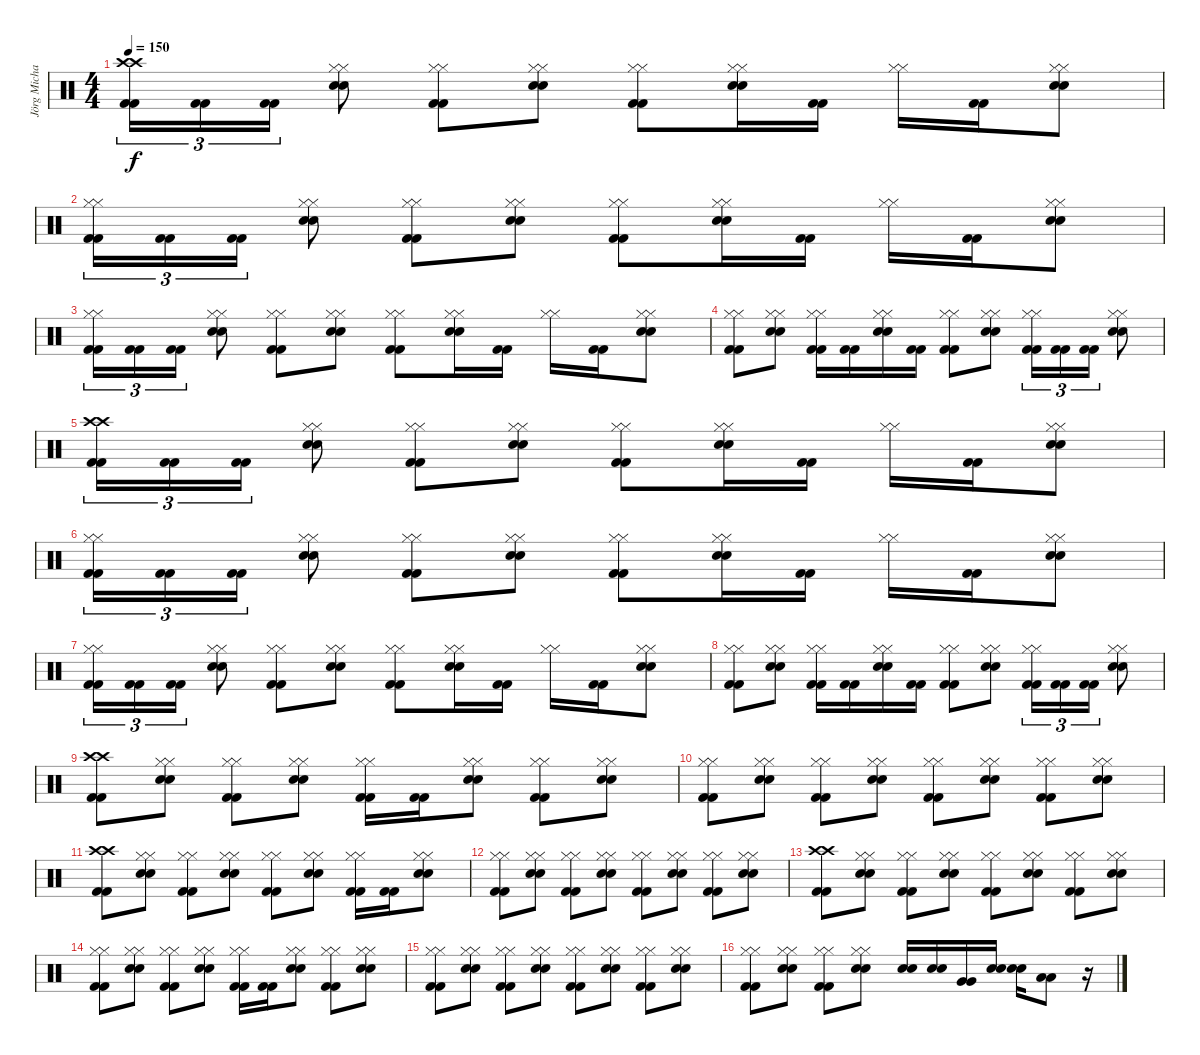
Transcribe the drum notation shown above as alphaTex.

\track ("Jörg Michael" "Jörg Micha") {instrument percussion}
\staff {score}
\articulation defaults
\ts (4 4)
\tempo 150
\clef neutral
\ks c
("Crash high (hit)" "Kick (hit) 2" "Crash high (hit)" "Kick (hit) 2").16{tu (3 2) dy f} ("Kick (hit) 2" "Kick (hit) 2").16{tu (3 2)} ("Kick (hit) 2" "Kick (hit) 2").16{tu (3 2)} ("Hi-Hat (closed)" "Snare (hit) 2" "Hi-Hat (closed)" "Snare (hit) 2").8 ("Hi-Hat (closed)" "Kick (hit) 2" "Hi-Hat (closed)" "Kick (hit) 2").8 ("Hi-Hat (closed)" "Snare (hit) 2" "Hi-Hat (closed)" "Snare (hit) 2").8 ("Hi-Hat (closed)" "Kick (hit) 2" "Hi-Hat (closed)" "Kick (hit) 2").8 ("Hi-Hat (closed)" "Snare (hit) 2" "Hi-Hat (closed)" "Snare (hit) 2").16 ("Kick (hit) 2" "Kick (hit) 2").16 ("Hi-Hat (closed)" "Hi-Hat (closed)").16 ("Kick (hit) 2" "Kick (hit) 2").16 ("Hi-Hat (closed)" "Snare (hit) 2" "Hi-Hat (closed)" "Snare (hit) 2").8 |
("Hi-Hat (closed)" "Kick (hit) 2" "Hi-Hat (closed)" "Kick (hit) 2").16{tu (3 2)} ("Kick (hit) 2" "Kick (hit) 2").16{tu (3 2)} ("Kick (hit) 2" "Kick (hit) 2").16{tu (3 2)} ("Hi-Hat (closed)" "Snare (hit) 2" "Hi-Hat (closed)" "Snare (hit) 2").8 ("Hi-Hat (closed)" "Kick (hit) 2" "Hi-Hat (closed)" "Kick (hit) 2").8 ("Hi-Hat (closed)" "Snare (hit) 2" "Hi-Hat (closed)" "Snare (hit) 2").8 ("Hi-Hat (closed)" "Kick (hit) 2" "Hi-Hat (closed)" "Kick (hit) 2").8 ("Hi-Hat (closed)" "Snare (hit) 2" "Hi-Hat (closed)" "Snare (hit) 2").16 ("Kick (hit) 2" "Kick (hit) 2").16 ("Hi-Hat (closed)" "Hi-Hat (closed)").16 ("Kick (hit) 2" "Kick (hit) 2").16 ("Hi-Hat (closed)" "Snare (hit) 2" "Hi-Hat (closed)" "Snare (hit) 2").8 |
("Hi-Hat (closed)" "Kick (hit) 2" "Hi-Hat (closed)" "Kick (hit) 2").16{tu (3 2)} ("Kick (hit) 2" "Kick (hit) 2").16{tu (3 2)} ("Kick (hit) 2" "Kick (hit) 2").16{tu (3 2)} ("Hi-Hat (closed)" "Snare (hit) 2" "Hi-Hat (closed)" "Snare (hit) 2").8 ("Hi-Hat (closed)" "Kick (hit) 2" "Hi-Hat (closed)" "Kick (hit) 2").8 ("Hi-Hat (closed)" "Snare (hit) 2" "Hi-Hat (closed)" "Snare (hit) 2").8 ("Hi-Hat (closed)" "Kick (hit) 2" "Hi-Hat (closed)" "Kick (hit) 2").8 ("Hi-Hat (closed)" "Snare (hit) 2" "Hi-Hat (closed)" "Snare (hit) 2").16 ("Kick (hit) 2" "Kick (hit) 2").16 ("Hi-Hat (closed)" "Hi-Hat (closed)").16 ("Kick (hit) 2" "Kick (hit) 2").16 ("Hi-Hat (closed)" "Snare (hit) 2" "Hi-Hat (closed)" "Snare (hit) 2").8 |
("Hi-Hat (closed)" "Kick (hit) 2" "Hi-Hat (closed)" "Kick (hit) 2").8 ("Hi-Hat (closed)" "Snare (hit) 2" "Hi-Hat (closed)" "Snare (hit) 2").8 ("Hi-Hat (closed)" "Kick (hit) 2" "Hi-Hat (closed)" "Kick (hit) 2").16 ("Kick (hit) 2" "Kick (hit) 2").16 ("Hi-Hat (closed)" "Snare (hit) 2" "Hi-Hat (closed)" "Snare (hit) 2").16 ("Kick (hit) 2" "Kick (hit) 2").16 ("Hi-Hat (closed)" "Kick (hit) 2" "Hi-Hat (closed)" "Kick (hit) 2").8 ("Hi-Hat (closed)" "Snare (hit) 2" "Hi-Hat (closed)" "Snare (hit) 2").8 ("Hi-Hat (closed)" "Kick (hit) 2" "Hi-Hat (closed)" "Kick (hit) 2").16{tu (3 2)} ("Kick (hit) 2" "Kick (hit) 2").16{tu (3 2)} ("Kick (hit) 2" "Kick (hit) 2").16{tu (3 2)} ("Hi-Hat (closed)" "Snare (hit) 2" "Hi-Hat (closed)" "Snare (hit) 2").8 |
("Crash high (hit)" "Kick (hit) 2" "Crash high (hit)" "Kick (hit) 2").16{tu (3 2)} ("Kick (hit) 2" "Kick (hit) 2").16{tu (3 2)} ("Kick (hit) 2" "Kick (hit) 2").16{tu (3 2)} ("Hi-Hat (closed)" "Snare (hit) 2" "Hi-Hat (closed)" "Snare (hit) 2").8 ("Hi-Hat (closed)" "Kick (hit) 2" "Hi-Hat (closed)" "Kick (hit) 2").8 ("Hi-Hat (closed)" "Snare (hit) 2" "Hi-Hat (closed)" "Snare (hit) 2").8 ("Hi-Hat (closed)" "Kick (hit) 2" "Hi-Hat (closed)" "Kick (hit) 2").8 ("Hi-Hat (closed)" "Snare (hit) 2" "Hi-Hat (closed)" "Snare (hit) 2").16 ("Kick (hit) 2" "Kick (hit) 2").16 ("Hi-Hat (closed)" "Hi-Hat (closed)").16 ("Kick (hit) 2" "Kick (hit) 2").16 ("Hi-Hat (closed)" "Snare (hit) 2" "Hi-Hat (closed)" "Snare (hit) 2").8 |
("Hi-Hat (closed)" "Kick (hit) 2" "Hi-Hat (closed)" "Kick (hit) 2").16{tu (3 2)} ("Kick (hit) 2" "Kick (hit) 2").16{tu (3 2)} ("Kick (hit) 2" "Kick (hit) 2").16{tu (3 2)} ("Hi-Hat (closed)" "Snare (hit) 2" "Hi-Hat (closed)" "Snare (hit) 2").8 ("Hi-Hat (closed)" "Kick (hit) 2" "Hi-Hat (closed)" "Kick (hit) 2").8 ("Hi-Hat (closed)" "Snare (hit) 2" "Hi-Hat (closed)" "Snare (hit) 2").8 ("Hi-Hat (closed)" "Kick (hit) 2" "Hi-Hat (closed)" "Kick (hit) 2").8 ("Hi-Hat (closed)" "Snare (hit) 2" "Hi-Hat (closed)" "Snare (hit) 2").16 ("Kick (hit) 2" "Kick (hit) 2").16 ("Hi-Hat (closed)" "Hi-Hat (closed)").16 ("Kick (hit) 2" "Kick (hit) 2").16 ("Hi-Hat (closed)" "Snare (hit) 2" "Hi-Hat (closed)" "Snare (hit) 2").8 |
("Hi-Hat (closed)" "Kick (hit) 2" "Hi-Hat (closed)" "Kick (hit) 2").16{tu (3 2)} ("Kick (hit) 2" "Kick (hit) 2").16{tu (3 2)} ("Kick (hit) 2" "Kick (hit) 2").16{tu (3 2)} ("Hi-Hat (closed)" "Snare (hit) 2" "Hi-Hat (closed)" "Snare (hit) 2").8 ("Hi-Hat (closed)" "Kick (hit) 2" "Hi-Hat (closed)" "Kick (hit) 2").8 ("Hi-Hat (closed)" "Snare (hit) 2" "Hi-Hat (closed)" "Snare (hit) 2").8 ("Hi-Hat (closed)" "Kick (hit) 2" "Hi-Hat (closed)" "Kick (hit) 2").8 ("Hi-Hat (closed)" "Snare (hit) 2" "Hi-Hat (closed)" "Snare (hit) 2").16 ("Kick (hit) 2" "Kick (hit) 2").16 ("Hi-Hat (closed)" "Hi-Hat (closed)").16 ("Kick (hit) 2" "Kick (hit) 2").16 ("Hi-Hat (closed)" "Snare (hit) 2" "Hi-Hat (closed)" "Snare (hit) 2").8 |
("Hi-Hat (closed)" "Kick (hit) 2" "Hi-Hat (closed)" "Kick (hit) 2").8 ("Hi-Hat (closed)" "Snare (hit) 2" "Hi-Hat (closed)" "Snare (hit) 2").8 ("Hi-Hat (closed)" "Kick (hit) 2" "Hi-Hat (closed)" "Kick (hit) 2").16 ("Kick (hit) 2" "Kick (hit) 2").16 ("Hi-Hat (closed)" "Snare (hit) 2" "Hi-Hat (closed)" "Snare (hit) 2").16 ("Kick (hit) 2" "Kick (hit) 2").16 ("Hi-Hat (closed)" "Kick (hit) 2" "Hi-Hat (closed)" "Kick (hit) 2").8 ("Hi-Hat (closed)" "Snare (hit) 2" "Hi-Hat (closed)" "Snare (hit) 2").8 ("Hi-Hat (closed)" "Kick (hit) 2" "Hi-Hat (closed)" "Kick (hit) 2").16{tu (3 2)} ("Kick (hit) 2" "Kick (hit) 2").16{tu (3 2)} ("Kick (hit) 2" "Kick (hit) 2").16{tu (3 2)} ("Hi-Hat (closed)" "Snare (hit) 2" "Hi-Hat (closed)" "Snare (hit) 2").8 |
("Kick (hit) 2" "Crash high (hit)" "Kick (hit) 2" "Crash high (hit)").8 ("Snare (hit) 2" "Hi-Hat (closed)" "Snare (hit) 2" "Hi-Hat (closed)").8 ("Hi-Hat (closed)" "Kick (hit) 2" "Hi-Hat (closed)" "Kick (hit) 2").8 ("Snare (hit) 2" "Hi-Hat (closed)" "Snare (hit) 2" "Hi-Hat (closed)").8 ("Kick (hit) 2" "Hi-Hat (closed)" "Kick (hit) 2" "Hi-Hat (closed)").16 ("Kick (hit) 2" "Kick (hit) 2").16 ("Snare (hit) 2" "Hi-Hat (closed)" "Snare (hit) 2" "Hi-Hat (closed)").8 ("Hi-Hat (closed)" "Kick (hit) 2" "Hi-Hat (closed)" "Kick (hit) 2").8 ("Hi-Hat (closed)" "Snare (hit) 2" "Hi-Hat (closed)" "Snare (hit) 2").8 |
("Kick (hit) 2" "Hi-Hat (closed)" "Kick (hit) 2" "Hi-Hat (closed)").8 ("Snare (hit) 2" "Hi-Hat (closed)" "Snare (hit) 2" "Hi-Hat (closed)").8 ("Hi-Hat (closed)" "Kick (hit) 2" "Hi-Hat (closed)" "Kick (hit) 2").8 ("Hi-Hat (closed)" "Snare (hit) 2" "Hi-Hat (closed)" "Snare (hit) 2").8 ("Kick (hit) 2" "Hi-Hat (closed)" "Kick (hit) 2" "Hi-Hat (closed)").8 ("Hi-Hat (closed)" "Snare (hit) 2" "Hi-Hat (closed)" "Snare (hit) 2").8 ("Kick (hit) 2" "Hi-Hat (closed)" "Kick (hit) 2" "Hi-Hat (closed)").8 ("Snare (hit) 2" "Hi-Hat (closed)" "Snare (hit) 2" "Hi-Hat (closed)").8 |
("Kick (hit) 2" "Crash high (hit)" "Kick (hit) 2" "Crash high (hit)").8 ("Snare (hit) 2" "Hi-Hat (closed)" "Snare (hit) 2" "Hi-Hat (closed)").8 ("Kick (hit) 2" "Hi-Hat (closed)" "Kick (hit) 2" "Hi-Hat (closed)").8 ("Hi-Hat (closed)" "Snare (hit) 2" "Hi-Hat (closed)" "Snare (hit) 2").8 ("Hi-Hat (closed)" "Kick (hit) 2" "Hi-Hat (closed)" "Kick (hit) 2").8 ("Hi-Hat (closed)" "Snare (hit) 2" "Hi-Hat (closed)" "Snare (hit) 2").8 ("Kick (hit) 2" "Hi-Hat (closed)" "Kick (hit) 2" "Hi-Hat (closed)").16 ("Kick (hit) 2" "Kick (hit) 2").16 ("Hi-Hat (closed)" "Snare (hit) 2" "Hi-Hat (closed)" "Snare (hit) 2").8 |
("Kick (hit) 2" "Hi-Hat (closed)" "Kick (hit) 2" "Hi-Hat (closed)").8 ("Hi-Hat (closed)" "Snare (hit) 2" "Hi-Hat (closed)" "Snare (hit) 2").8 ("Hi-Hat (closed)" "Kick (hit) 2" "Hi-Hat (closed)" "Kick (hit) 2").8 ("Hi-Hat (closed)" "Snare (hit) 2" "Hi-Hat (closed)" "Snare (hit) 2").8 ("Hi-Hat (closed)" "Kick (hit) 2" "Hi-Hat (closed)" "Kick (hit) 2").8 ("Hi-Hat (closed)" "Snare (hit) 2" "Hi-Hat (closed)" "Snare (hit) 2").8 ("Kick (hit) 2" "Hi-Hat (closed)" "Kick (hit) 2" "Hi-Hat (closed)").8 ("Snare (hit) 2" "Hi-Hat (closed)" "Snare (hit) 2" "Hi-Hat (closed)").8 |
("Crash high (hit)" "Kick (hit) 2" "Crash high (hit)" "Kick (hit) 2").8 ("Hi-Hat (closed)" "Snare (hit) 2" "Hi-Hat (closed)" "Snare (hit) 2").8 ("Hi-Hat (closed)" "Kick (hit) 2" "Hi-Hat (closed)" "Kick (hit) 2").8 ("Hi-Hat (closed)" "Snare (hit) 2" "Hi-Hat (closed)" "Snare (hit) 2").8 ("Hi-Hat (closed)" "Kick (hit) 2" "Hi-Hat (closed)" "Kick (hit) 2").8 ("Snare (hit) 2" "Hi-Hat (closed)" "Snare (hit) 2" "Hi-Hat (closed)").8 ("Kick (hit) 2" "Hi-Hat (closed)" "Kick (hit) 2" "Hi-Hat (closed)").8 ("Snare (hit) 2" "Hi-Hat (closed)" "Snare (hit) 2" "Hi-Hat (closed)").8 |
("Hi-Hat (closed)" "Kick (hit) 2" "Hi-Hat (closed)" "Kick (hit) 2").8 ("Hi-Hat (closed)" "Snare (hit) 2" "Hi-Hat (closed)" "Snare (hit) 2").8 ("Hi-Hat (closed)" "Kick (hit) 2" "Hi-Hat (closed)" "Kick (hit) 2").8 ("Hi-Hat (closed)" "Snare (hit) 2" "Hi-Hat (closed)" "Snare (hit) 2").8 ("Hi-Hat (closed)" "Kick (hit) 2" "Hi-Hat (closed)" "Kick (hit) 2").16 ("Kick (hit) 2" "Kick (hit) 2").16 ("Snare (hit) 2" "Hi-Hat (closed)" "Snare (hit) 2" "Hi-Hat (closed)").8 ("Hi-Hat (closed)" "Kick (hit) 2" "Hi-Hat (closed)" "Kick (hit) 2").8 ("Hi-Hat (closed)" "Snare (hit) 2" "Hi-Hat (closed)" "Snare (hit) 2").8 |
("Kick (hit) 2" "Hi-Hat (closed)" "Kick (hit) 2" "Hi-Hat (closed)").8 ("Hi-Hat (closed)" "Snare (hit) 2" "Hi-Hat (closed)" "Snare (hit) 2").8 ("Hi-Hat (closed)" "Kick (hit) 2" "Hi-Hat (closed)" "Kick (hit) 2").8 ("Hi-Hat (closed)" "Snare (hit) 2" "Hi-Hat (closed)" "Snare (hit) 2").8 ("Kick (hit) 2" "Hi-Hat (closed)" "Kick (hit) 2" "Hi-Hat (closed)").8 ("Snare (hit) 2" "Hi-Hat (closed)" "Snare (hit) 2" "Hi-Hat (closed)").8 ("Kick (hit) 2" "Hi-Hat (closed)" "Kick (hit) 2" "Hi-Hat (closed)").8 ("Snare (hit) 2" "Hi-Hat (closed)" "Snare (hit) 2" "Hi-Hat (closed)").8 |
("Hi-Hat (closed)" "Kick (hit) 2" "Hi-Hat (closed)" "Kick (hit) 2").8 ("Snare (hit) 2" "Hi-Hat (closed)" "Snare (hit) 2" "Hi-Hat (closed)").8 ("Hi-Hat (closed)" "Kick (hit) 2" "Hi-Hat (closed)" "Kick (hit) 2").8 ("Hi-Hat (closed)" "Snare (hit) 2" "Hi-Hat (closed)" "Snare (hit) 2").8 ("Snare (hit) 2" "Snare (hit) 2").16 ("Snare (hit) 2" "Snare (hit) 2").16 ("Very Low Tom (hit)" "Very Low Tom (hit)").16 ("Snare (hit) 2" "Snare (hit) 2").16 ("Snare (hit) 2" "Snare (hit) 2").16 ("Low Floor Tom (hit)" "Low Floor Tom (hit)").8 r.16
